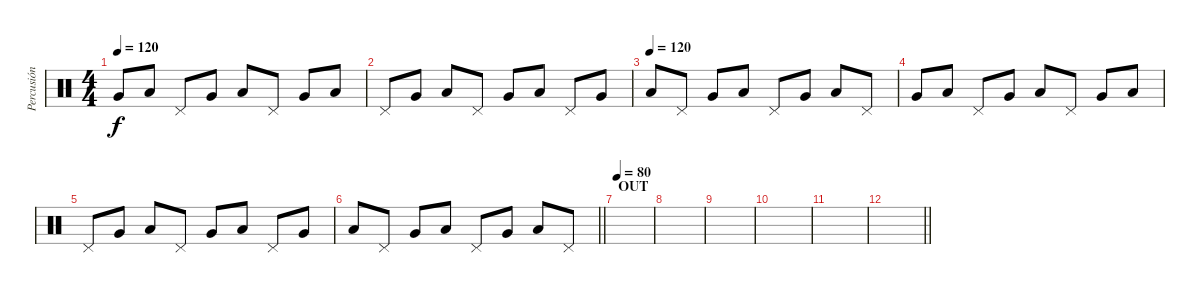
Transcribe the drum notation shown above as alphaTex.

\track ("Percusión" "Percusión") {instrument percussion}
\staff {score}
\articulation defaults
\ts (4 4)
\tempo 120
\clef neutral
\ks c "Very Low Tom (hit)".8{dy f} "Low Floor Tom (hit)".8 "Pedal Hi-Hat (hit)".8 "Very Low Tom (hit)".8 "Low Floor Tom (hit)".8 "Pedal Hi-Hat (hit)".8 "Very Low Tom (hit)".8 "Low Floor Tom (hit)".8
|
"Pedal Hi-Hat (hit)".8 "Very Low Tom (hit)".8 "Low Floor Tom (hit)".8 "Pedal Hi-Hat (hit)".8 "Very Low Tom (hit)".8 "Low Floor Tom (hit)".8 "Pedal Hi-Hat (hit)".8 "Very Low Tom (hit)".8 |
\tempo (120)
"Low Floor Tom (hit)".8 "Pedal Hi-Hat (hit)".8 "Very Low Tom (hit)".8 "Low Floor Tom (hit)".8 "Pedal Hi-Hat (hit)".8 "Very Low Tom (hit)".8 "Low Floor Tom (hit)".8 "Pedal Hi-Hat (hit)".8 |
"Very Low Tom (hit)".8 "Low Floor Tom (hit)".8 "Pedal Hi-Hat (hit)".8 "Very Low Tom (hit)".8 "Low Floor Tom (hit)".8 "Pedal Hi-Hat (hit)".8 "Very Low Tom (hit)".8 "Low Floor Tom (hit)".8 |
"Pedal Hi-Hat (hit)".8 "Very Low Tom (hit)".8 "Low Floor Tom (hit)".8 "Pedal Hi-Hat (hit)".8 "Very Low Tom (hit)".8 "Low Floor Tom (hit)".8 "Pedal Hi-Hat (hit)".8 "Very Low Tom (hit)".8 |
\barLineRight lightlight "Low Floor Tom (hit)".8 "Pedal Hi-Hat (hit)".8 "Very Low Tom (hit)".8 "Low Floor Tom (hit)".8 "Pedal Hi-Hat (hit)".8 "Very Low Tom (hit)".8 "Low Floor Tom (hit)".8 "Pedal Hi-Hat (hit)".8
|
\section ("" "OUT ")
\tempo 80
|
|
|
|
|
\barLineRight lightlight
